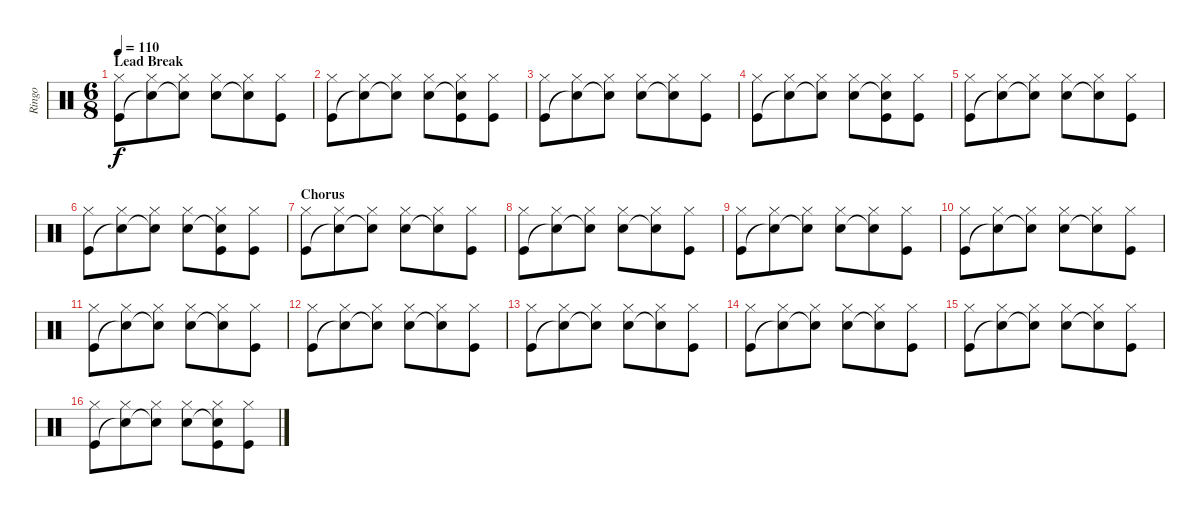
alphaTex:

\track ("Ringo" "Ringo") {instrument percussion}
\staff {score}
\articulation defaults
\ts (6 8)
\section ("" "Lead Break")
\tempo 110
\clef neutral
\ks c
("Hi-Hat (closed)" "Kick (hit)").8{dy f} ("Hi-Hat (closed)" "Snare (hit)"{t}).8 ("Hi-Hat (closed)" "Snare (hit)"{t}).8 ("Hi-Hat (closed)" "Snare (hit) 2").8 ("Hi-Hat (closed)" "Snare (hit)"{t}).8 ("Hi-Hat (closed)" "Kick (hit)").8 |
("Hi-Hat (closed)" "Kick (hit)").8 ("Hi-Hat (closed)" "Snare (hit)"{t}).8 ("Hi-Hat (closed)" "Snare (hit)"{t}).8 ("Hi-Hat (closed)" "Snare (hit) 2").8 ("Hi-Hat (closed)" "Snare (hit)"{t} "Kick (hit)").8 ("Hi-Hat (closed)" "Kick (hit)").8 |
("Hi-Hat (closed)" "Kick (hit)").8 ("Hi-Hat (closed)" "Snare (hit)"{t}).8 ("Hi-Hat (closed)" "Snare (hit)"{t}).8 ("Hi-Hat (closed)" "Snare (hit) 2").8 ("Hi-Hat (closed)" "Snare (hit)"{t}).8 ("Hi-Hat (closed)" "Kick (hit)").8 |
("Hi-Hat (closed)" "Kick (hit)").8 ("Hi-Hat (closed)" "Snare (hit)"{t}).8 ("Hi-Hat (closed)" "Snare (hit)"{t}).8 ("Hi-Hat (closed)" "Snare (hit) 2").8 ("Hi-Hat (closed)" "Snare (hit)"{t} "Kick (hit)").8 ("Hi-Hat (closed)" "Kick (hit)").8 |
("Hi-Hat (closed)" "Kick (hit)").8 ("Hi-Hat (closed)" "Snare (hit)"{t}).8 ("Hi-Hat (closed)" "Snare (hit)"{t}).8 ("Hi-Hat (closed)" "Snare (hit) 2").8 ("Hi-Hat (closed)" "Snare (hit)"{t}).8 ("Hi-Hat (closed)" "Kick (hit)").8 |
("Hi-Hat (closed)" "Kick (hit)").8 ("Hi-Hat (closed)" "Snare (hit)"{t}).8 ("Hi-Hat (closed)" "Snare (hit)"{t}).8 ("Hi-Hat (closed)" "Snare (hit) 2").8 ("Hi-Hat (closed)" "Snare (hit)"{t} "Kick (hit)").8 ("Hi-Hat (closed)" "Kick (hit)").8 |
\section ("" "Chorus")
("Hi-Hat (closed)" "Kick (hit)").8 ("Hi-Hat (closed)" "Snare (hit)"{t}).8 ("Hi-Hat (closed)" "Snare (hit)"{t}).8 ("Hi-Hat (closed)" "Snare (hit) 2").8 ("Hi-Hat (closed)" "Snare (hit)"{t}).8 ("Hi-Hat (closed)" "Kick (hit)").8 |
("Hi-Hat (closed)" "Kick (hit)").8 ("Hi-Hat (closed)" "Snare (hit)"{t}).8 ("Hi-Hat (closed)" "Snare (hit)"{t}).8 ("Hi-Hat (closed)" "Snare (hit) 2").8 ("Hi-Hat (closed)" "Snare (hit)"{t}).8 ("Hi-Hat (closed)" "Kick (hit)").8 |
("Hi-Hat (closed)" "Kick (hit)").8 ("Hi-Hat (closed)" "Snare (hit)"{t}).8 ("Hi-Hat (closed)" "Snare (hit)"{t}).8 ("Hi-Hat (closed)" "Snare (hit) 2").8 ("Hi-Hat (closed)" "Snare (hit)"{t}).8 ("Hi-Hat (closed)" "Kick (hit)").8 |
("Hi-Hat (closed)" "Kick (hit)").8 ("Hi-Hat (closed)" "Snare (hit)"{t}).8 ("Hi-Hat (closed)" "Snare (hit)"{t}).8 ("Hi-Hat (closed)" "Snare (hit) 2").8 ("Hi-Hat (closed)" "Snare (hit)"{t}).8 ("Hi-Hat (closed)" "Kick (hit)").8 |
("Hi-Hat (closed)" "Kick (hit)").8 ("Hi-Hat (closed)" "Snare (hit)"{t}).8 ("Hi-Hat (closed)" "Snare (hit)"{t}).8 ("Hi-Hat (closed)" "Snare (hit) 2").8 ("Hi-Hat (closed)" "Snare (hit)"{t}).8 ("Hi-Hat (closed)" "Kick (hit)").8 |
("Hi-Hat (closed)" "Kick (hit)").8 ("Hi-Hat (closed)" "Snare (hit)"{t}).8 ("Hi-Hat (closed)" "Snare (hit)"{t}).8 ("Hi-Hat (closed)" "Snare (hit) 2").8 ("Hi-Hat (closed)" "Snare (hit)"{t}).8 ("Hi-Hat (closed)" "Kick (hit)").8 |
("Hi-Hat (closed)" "Kick (hit)").8 ("Hi-Hat (closed)" "Snare (hit)"{t}).8 ("Hi-Hat (closed)" "Snare (hit)"{t}).8 ("Hi-Hat (closed)" "Snare (hit) 2").8 ("Hi-Hat (closed)" "Snare (hit)"{t}).8 ("Hi-Hat (closed)" "Kick (hit)").8 |
("Hi-Hat (closed)" "Kick (hit)").8 ("Hi-Hat (closed)" "Snare (hit)"{t}).8 ("Hi-Hat (closed)" "Snare (hit)"{t}).8 ("Hi-Hat (closed)" "Snare (hit) 2").8 ("Hi-Hat (closed)" "Snare (hit)"{t}).8 ("Hi-Hat (closed)" "Kick (hit)").8 |
("Hi-Hat (closed)" "Kick (hit)").8 ("Hi-Hat (closed)" "Snare (hit)"{t}).8 ("Hi-Hat (closed)" "Snare (hit)"{t}).8 ("Hi-Hat (closed)" "Snare (hit) 2").8 ("Hi-Hat (closed)" "Snare (hit)"{t}).8 ("Hi-Hat (closed)" "Kick (hit)").8 |
("Hi-Hat (closed)" "Kick (hit)").8 ("Hi-Hat (closed)" "Snare (hit)"{t}).8 ("Hi-Hat (closed)" "Snare (hit)"{t}).8 ("Hi-Hat (closed)" "Snare (hit) 2").8 ("Hi-Hat (closed)" "Snare (hit)"{t} "Kick (hit)").8 ("Hi-Hat (closed)" "Kick (hit)").8
